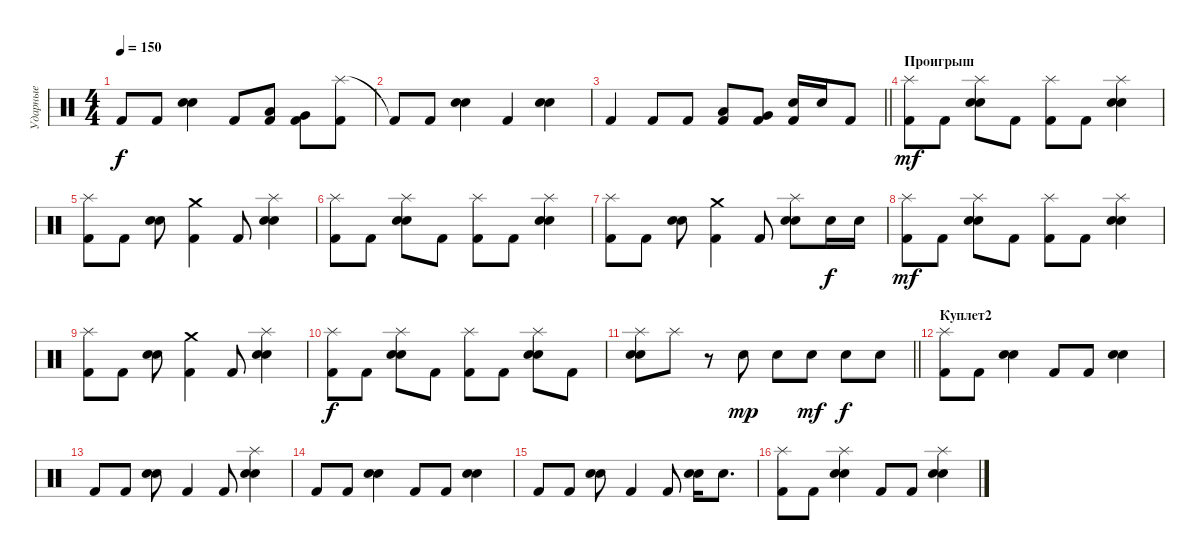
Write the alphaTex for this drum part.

\track ("Ударные" "Ударные") {instrument percussion}
\staff {score}
\articulation defaults
\ts (4 4)
\tempo 150
\clef neutral
\ks c "Kick (hit) 2".8{dy f} "Kick (hit) 2".8
("Electric Snare (hit)" "Snare (hit) 2").4 "Kick (hit) 2".8 ("Low Tom (hit)" "Kick (hit) 2").8 ("Very Low Tom (hit)" "Kick (hit) 2").8 ("Splash (hit)" "Kick (hit) 2").8 |
"Kick (hit) 2"{t}.8 "Kick (hit) 2".8 ("Electric Snare (hit)" "Snare (hit) 2").4 "Kick (hit) 2".4 ("Electric Snare (hit)" "Snare (hit) 2").4 |
\barLineRight lightlight "Kick (hit) 2".4 "Kick (hit) 2".8 "Kick (hit) 2".8
("Low Tom (hit)" "Kick (hit) 2").8 ("Very Low Tom (hit)" "Kick (hit) 2").8 ("Electric Snare (hit)" "Kick (hit) 2").16 "Electric Snare (hit)".16 "Kick (hit) 2".8 |
\section ("" "Проигрыш")
("Splash (hit)" "Kick (hit) 2").8{dy mf} "Kick (hit) 2".8 ("Splash (hit)" "Electric Snare (hit)" "Snare (hit) 2").8 "Kick (hit) 2".8 ("Splash (hit)" "Kick (hit) 2").8 "Kick (hit) 2".8 ("Splash (hit)" "Electric Snare (hit)" "Snare (hit) 2").4 |
("Splash (hit)" "Kick (hit) 2").8 "Kick (hit) 2".8 ("Electric Snare (hit)" "Snare (hit) 2").8 ("Crash medium (hit)" "Kick (hit) 2").4 "Kick (hit) 2".8 ("Splash (hit)" "Electric Snare (hit)" "Snare (hit) 2").4 |
("Splash (hit)" "Kick (hit) 2").8 "Kick (hit) 2".8 ("Splash (hit)" "Electric Snare (hit)" "Snare (hit) 2").8 "Kick (hit) 2".8 ("Splash (hit)" "Kick (hit) 2").8 "Kick (hit) 2".8 ("Splash (hit)" "Electric Snare (hit)" "Snare (hit) 2").4 |
("Splash (hit)" "Kick (hit) 2").8 "Kick (hit) 2".8 ("Electric Snare (hit)" "Snare (hit) 2").8 ("Crash medium (hit)" "Kick (hit) 2").4 "Kick (hit) 2".8 ("Splash (hit)" "Electric Snare (hit)" "Snare (hit) 2").8 "Electric Snare (hit)".16{dy f} "Electric Snare (hit)".16 |
("Splash (hit)" "Kick (hit) 2").8{dy mf} "Kick (hit) 2".8 ("Splash (hit)" "Electric Snare (hit)" "Snare (hit) 2").8 "Kick (hit) 2".8 ("Splash (hit)" "Kick (hit) 2").8 "Kick (hit) 2".8 ("Splash (hit)" "Electric Snare (hit)" "Snare (hit) 2").4 |
("Splash (hit)" "Kick (hit) 2").8 "Kick (hit) 2".8 ("Electric Snare (hit)" "Snare (hit) 2").8 ("Crash medium (hit)" "Kick (hit) 2").4 "Kick (hit) 2".8 ("Splash (hit)" "Electric Snare (hit)" "Snare (hit) 2").4 |
("Splash (hit)" "Kick (hit) 2").8{dy f} "Kick (hit) 2".8 ("Splash (hit)" "Electric Snare (hit)" "Snare (hit) 2").8 "Kick (hit) 2".8 ("Splash (hit)" "Kick (hit) 2").8 "Kick (hit) 2".8 ("Splash (hit)" "Electric Snare (hit)" "Snare (hit) 2").8 "Kick (hit) 2".8 |
\barLineRight lightlight
("Splash (hit)" "Electric Snare (hit)" "Snare (hit) 2").8 "Splash (hit)".8 r.8 "Electric Snare (hit)".8{dy mp} "Electric Snare (hit)".8 "Electric Snare (hit)".8{dy mf} "Electric Snare (hit)".8{dy f} "Electric Snare (hit)".8 |
\section ("" "Куплет2")
("Splash (hit)" "Kick (hit) 2").8 "Kick (hit) 2".8 ("Electric Snare (hit)" "Snare (hit) 2").4 "Kick (hit) 2".8 "Kick (hit) 2".8 ("Electric Snare (hit)" "Snare (hit) 2").4 |
"Kick (hit) 2".8 "Kick (hit) 2".8 ("Electric Snare (hit)" "Snare (hit) 2").8 "Kick (hit) 2".4 "Kick (hit) 2".8 ("Splash (hit)" "Electric Snare (hit)" "Snare (hit) 2").4 |
"Kick (hit) 2".8 "Kick (hit) 2".8 ("Electric Snare (hit)" "Snare (hit) 2").4 "Kick (hit) 2".8 "Kick (hit) 2".8 ("Electric Snare (hit)" "Snare (hit) 2").4 |
"Kick (hit) 2".8 "Kick (hit) 2".8 ("Electric Snare (hit)" "Snare (hit) 2").8 "Kick (hit) 2".4 "Kick (hit) 2".8 ("Electric Snare (hit)" "Snare (hit) 2").16 "Electric Snare (hit)".8{d} |
("Splash (hit)" "Kick (hit) 2").8 "Kick (hit) 2".8 ("Splash (hit)" "Electric Snare (hit)" "Snare (hit) 2").4 "Kick (hit) 2".8 "Kick (hit) 2".8 ("Splash (hit)" "Electric Snare (hit)" "Snare (hit) 2").4
